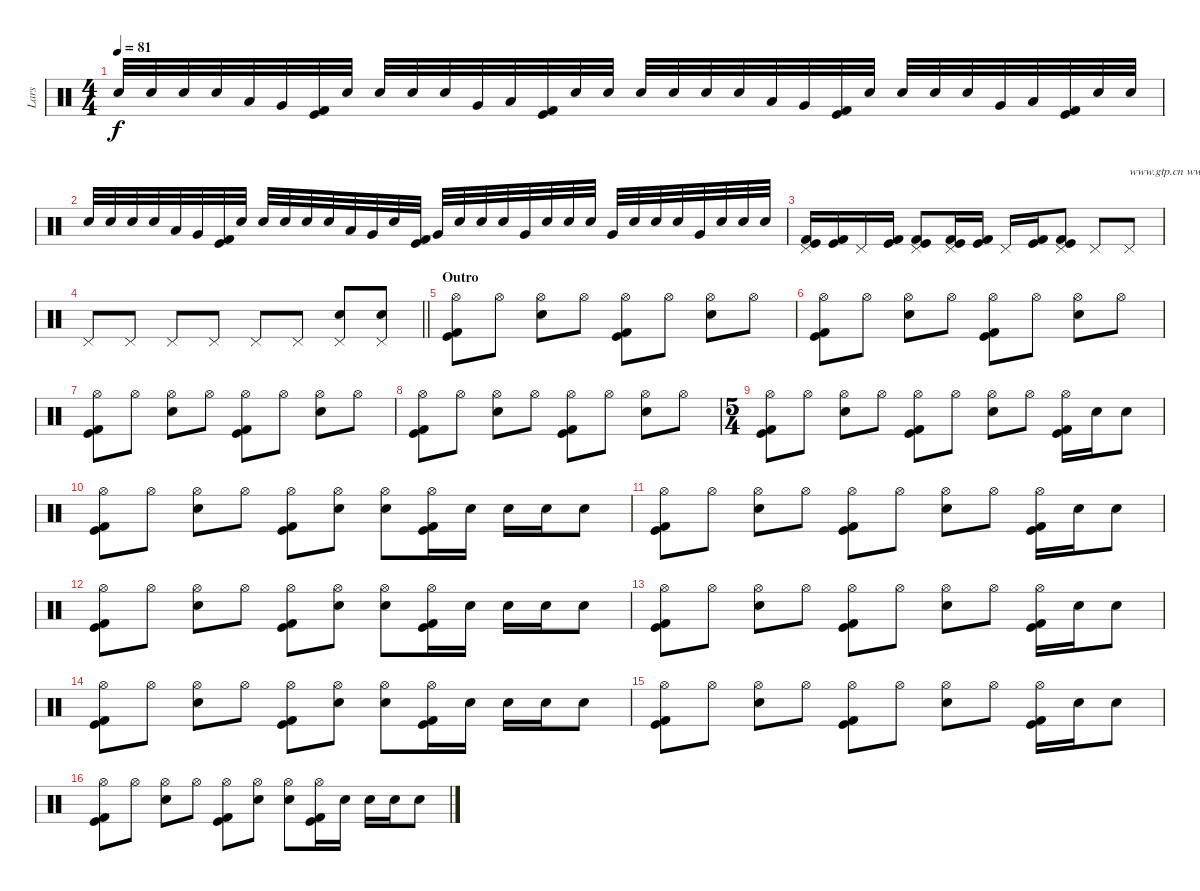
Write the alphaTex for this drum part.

\track ("Lars" "Lars") {instrument percussion}
\staff {score}
\articulation defaults
\ts (4 4)
\tempo 81
\clef neutral
\ks c "Electric Snare (hit)".32{dy f} "Electric Snare (hit)".32 "Electric Snare (hit)".32 "Electric Snare (hit)".32 "Low Tom (hit)".32 "Very Low Tom (hit)".32
("Kick (hit)" "Kick (hit) 2").32 "Electric Snare (hit)".32 "Electric Snare (hit)".32 "Electric Snare (hit)".32 "Electric Snare (hit)".32 "Very Low Tom (hit)".32 "Low Floor Tom (hit)".32 ("Kick (hit)" "Kick (hit) 2").32 "Electric Snare (hit)".32 "Electric Snare (hit)".32 "Electric Snare (hit)".32 "Electric Snare (hit)".32 "Electric Snare (hit)".32 "Electric Snare (hit)".32 "Low Tom (hit)".32 "Very Low Tom (hit)".32 ("Kick (hit)" "Kick (hit) 2").32 "Electric Snare (hit)".32 "Electric Snare (hit)".32 "Electric Snare (hit)".32 "Electric Snare (hit)".32 "Very Low Tom (hit)".32 "Low Floor Tom (hit)".32 ("Kick (hit)" "Kick (hit) 2").32 "Electric Snare (hit)".32 "Electric Snare (hit)".32 |
"Electric Snare (hit)".32 "Electric Snare (hit)".32 "Electric Snare (hit)".32 "Electric Snare (hit)".32 "Low Tom (hit)".32 "Very Low Tom (hit)".32 ("Kick (hit)" "Kick (hit) 2").32 "Electric Snare (hit)".32 "Electric Snare (hit)".32 "Electric Snare (hit)".32 "Electric Snare (hit)".32 "Electric Snare (hit)".32 "Low Tom (hit)".32 "Very Low Tom (hit)".32 "Electric Snare (hit)".32 ("Kick (hit)" "Kick (hit) 2").32 "Very Low Tom (hit)".32 "Electric Snare (hit)".32 "Electric Snare (hit)".32 "Electric Snare (hit)".32 "Very Low Tom (hit)".32 "Electric Snare (hit)".32 "Electric Snare (hit)".32 "Electric Snare (hit)".32 "Very Low Tom (hit)".32 "Electric Snare (hit)".32 "Electric Snare (hit)".32 "Electric Snare (hit)".32 "Very Low Tom (hit)".32 "Electric Snare (hit)".32 "Electric Snare (hit)".32 "Electric Snare (hit)".32 |
("Pedal Hi-Hat (hit)" "Kick (hit)" "Kick (hit) 2").16 ("Kick (hit)" "Kick (hit) 2").16 "Pedal Hi-Hat (hit)".16 ("Kick (hit)" "Kick (hit) 2").16 ("Pedal Hi-Hat (hit)" "Kick (hit)" "Kick (hit) 2").8 ("Pedal Hi-Hat (hit)" "Kick (hit)" "Kick (hit) 2").16 ("Kick (hit)" "Kick (hit) 2").16 "Pedal Hi-Hat (hit)".16 ("Kick (hit)" "Kick (hit) 2").16 ("Pedal Hi-Hat (hit)" "Kick (hit)" "Kick (hit) 2").8 "Pedal Hi-Hat (hit)".8 "Pedal Hi-Hat (hit)".8{txt "www.gtp.cn www.51gtp.com联合为您提供优秀的GTP!"} |
\barLineRight lightlight "Pedal Hi-Hat (hit)".8 "Pedal Hi-Hat (hit)".8 "Pedal Hi-Hat (hit)".8 "Pedal Hi-Hat (hit)".8 "Pedal Hi-Hat (hit)".8 "Pedal Hi-Hat (hit)".8
("Pedal Hi-Hat (hit)" "Electric Snare (hit)").8 ("Pedal Hi-Hat (hit)" "Electric Snare (hit)").8 |
\section ("" "Outro")
("Hi-Hat (open)" "Kick (hit)" "Kick (hit) 2").8 "Hi-Hat (open)".8 ("Hi-Hat (open)" "Electric Snare (hit)").8 "Hi-Hat (open)".8 ("Hi-Hat (open)" "Kick (hit)" "Kick (hit) 2").8 "Hi-Hat (open)".8 ("Hi-Hat (open)" "Electric Snare (hit)").8 "Hi-Hat (open)".8 |
("Hi-Hat (open)" "Kick (hit)" "Kick (hit) 2").8 "Hi-Hat (open)".8 ("Hi-Hat (open)" "Electric Snare (hit)").8 "Hi-Hat (open)".8 ("Hi-Hat (open)" "Kick (hit)" "Kick (hit) 2").8 "Hi-Hat (open)".8 ("Hi-Hat (open)" "Electric Snare (hit)").8 "Hi-Hat (open)".8 |
("Hi-Hat (open)" "Kick (hit)" "Kick (hit) 2").8 "Hi-Hat (open)".8 ("Hi-Hat (open)" "Electric Snare (hit)").8 "Hi-Hat (open)".8 ("Hi-Hat (open)" "Kick (hit)" "Kick (hit) 2").8 "Hi-Hat (open)".8 ("Hi-Hat (open)" "Electric Snare (hit)").8 "Hi-Hat (open)".8 |
("Hi-Hat (open)" "Kick (hit)" "Kick (hit) 2").8 "Hi-Hat (open)".8 ("Hi-Hat (open)" "Electric Snare (hit)").8 "Hi-Hat (open)".8 ("Hi-Hat (open)" "Kick (hit)" "Kick (hit) 2").8 "Hi-Hat (open)".8 ("Hi-Hat (open)" "Electric Snare (hit)").8 "Hi-Hat (open)".8 |
\ts (5 4)
("Hi-Hat (open)" "Kick (hit)" "Kick (hit) 2").8 "Hi-Hat (open)".8 ("Hi-Hat (open)" "Electric Snare (hit)").8 "Hi-Hat (open)".8 ("Hi-Hat (open)" "Kick (hit)" "Kick (hit) 2").8 "Hi-Hat (open)".8 ("Hi-Hat (open)" "Electric Snare (hit)").8 "Hi-Hat (open)".8 ("Hi-Hat (open)" "Kick (hit)" "Kick (hit) 2").16 "Electric Snare (hit)".16 "Electric Snare (hit)".8 |
("Hi-Hat (open)" "Kick (hit)" "Kick (hit) 2").8 "Hi-Hat (open)".8 ("Hi-Hat (open)" "Electric Snare (hit)").8 "Hi-Hat (open)".8 ("Hi-Hat (open)" "Kick (hit)" "Kick (hit) 2").8 ("Hi-Hat (open)" "Electric Snare (hit)").8 ("Hi-Hat (open)" "Electric Snare (hit)").8 ("Hi-Hat (open)" "Kick (hit)" "Kick (hit) 2").16 "Electric Snare (hit)".16 "Electric Snare (hit)".16 "Electric Snare (hit)".16 "Electric Snare (hit)".8 |
("Hi-Hat (open)" "Kick (hit)" "Kick (hit) 2").8 "Hi-Hat (open)".8 ("Hi-Hat (open)" "Electric Snare (hit)").8 "Hi-Hat (open)".8 ("Hi-Hat (open)" "Kick (hit)" "Kick (hit) 2").8 "Hi-Hat (open)".8 ("Hi-Hat (open)" "Electric Snare (hit)").8 "Hi-Hat (open)".8 ("Hi-Hat (open)" "Kick (hit)" "Kick (hit) 2").16 "Electric Snare (hit)".16 "Electric Snare (hit)".8 |
("Hi-Hat (open)" "Kick (hit)" "Kick (hit) 2").8 "Hi-Hat (open)".8 ("Hi-Hat (open)" "Electric Snare (hit)").8 "Hi-Hat (open)".8 ("Hi-Hat (open)" "Kick (hit)" "Kick (hit) 2").8 ("Hi-Hat (open)" "Electric Snare (hit)").8 ("Hi-Hat (open)" "Electric Snare (hit)").8 ("Hi-Hat (open)" "Kick (hit)" "Kick (hit) 2").16 "Electric Snare (hit)".16 "Electric Snare (hit)".16 "Electric Snare (hit)".16 "Electric Snare (hit)".8 |
("Hi-Hat (open)" "Kick (hit)" "Kick (hit) 2").8 "Hi-Hat (open)".8 ("Hi-Hat (open)" "Electric Snare (hit)").8 "Hi-Hat (open)".8 ("Hi-Hat (open)" "Kick (hit)" "Kick (hit) 2").8 "Hi-Hat (open)".8 ("Hi-Hat (open)" "Electric Snare (hit)").8 "Hi-Hat (open)".8 ("Hi-Hat (open)" "Kick (hit)" "Kick (hit) 2").16 "Electric Snare (hit)".16 "Electric Snare (hit)".8 |
("Hi-Hat (open)" "Kick (hit)" "Kick (hit) 2").8 "Hi-Hat (open)".8 ("Hi-Hat (open)" "Electric Snare (hit)").8 "Hi-Hat (open)".8 ("Hi-Hat (open)" "Kick (hit)" "Kick (hit) 2").8 ("Hi-Hat (open)" "Electric Snare (hit)").8 ("Hi-Hat (open)" "Electric Snare (hit)").8 ("Hi-Hat (open)" "Kick (hit)" "Kick (hit) 2").16 "Electric Snare (hit)".16 "Electric Snare (hit)".16 "Electric Snare (hit)".16 "Electric Snare (hit)".8 |
("Hi-Hat (open)" "Kick (hit)" "Kick (hit) 2").8 "Hi-Hat (open)".8 ("Hi-Hat (open)" "Electric Snare (hit)").8 "Hi-Hat (open)".8 ("Hi-Hat (open)" "Kick (hit)" "Kick (hit) 2").8 "Hi-Hat (open)".8 ("Hi-Hat (open)" "Electric Snare (hit)").8 "Hi-Hat (open)".8 ("Hi-Hat (open)" "Kick (hit)" "Kick (hit) 2").16 "Electric Snare (hit)".16 "Electric Snare (hit)".8 |
("Hi-Hat (open)" "Kick (hit)" "Kick (hit) 2").8 "Hi-Hat (open)".8 ("Hi-Hat (open)" "Electric Snare (hit)").8 "Hi-Hat (open)".8 ("Hi-Hat (open)" "Kick (hit)" "Kick (hit) 2").8 ("Hi-Hat (open)" "Electric Snare (hit)").8 ("Hi-Hat (open)" "Electric Snare (hit)").8 ("Hi-Hat (open)" "Kick (hit)" "Kick (hit) 2").16 "Electric Snare (hit)".16 "Electric Snare (hit)".16 "Electric Snare (hit)".16 "Electric Snare (hit)".8
